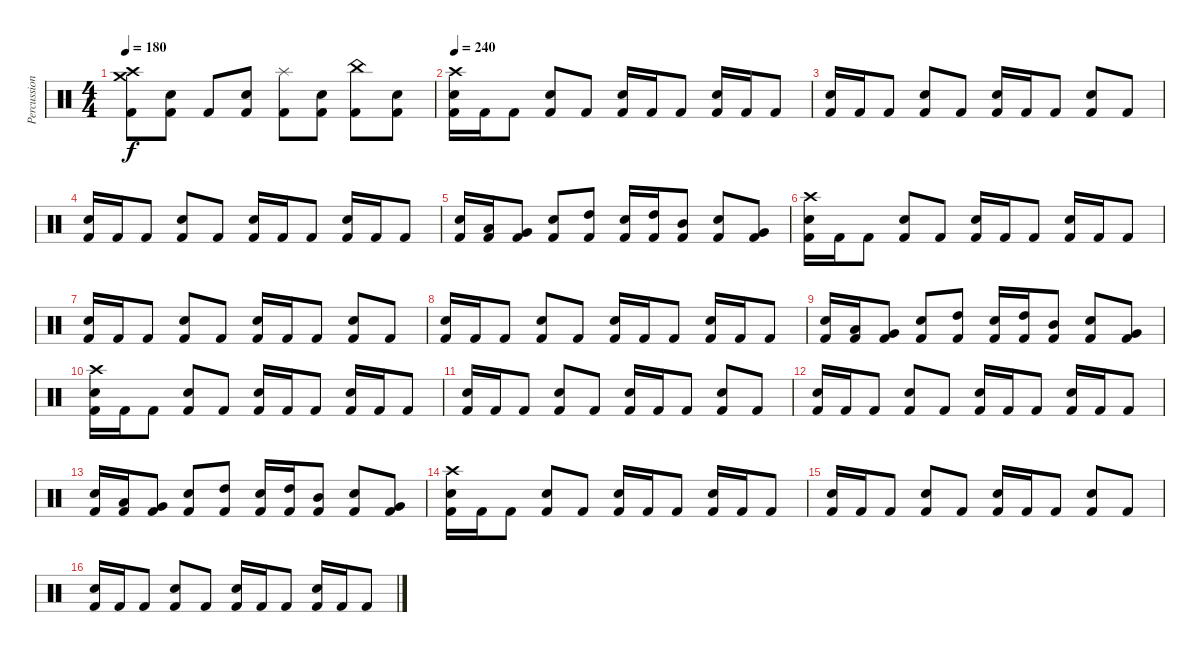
\track ("Percussion" "Percussion") {mute instrument percussion}
\staff {score}
\articulation defaults
\ts (4 4)
\tempo 180
\clef neutral
\ks c
("Crash high (hit)" "Crash medium (hit)" "Kick (hit) 2").8{dy f} ("Electric Snare (hit)" "Kick (hit) 2").8 "Kick (hit) 2".8 ("Electric Snare (hit)" "Kick (hit) 2").8 ("Splash (hit)" "Kick (hit) 2").8 ("Electric Snare (hit)" "Kick (hit) 2").8 ("China (hit)" "Kick (hit) 2").8 ("Electric Snare (hit)" "Kick (hit) 2").8 |
\tempo 240
("Crash high (hit)" "Electric Snare (hit)" "Kick (hit) 2").16 "Kick (hit) 2".16 "Kick (hit) 2".8 ("Electric Snare (hit)" "Kick (hit) 2").8 "Kick (hit) 2".8 ("Electric Snare (hit)" "Kick (hit) 2").16 "Kick (hit) 2".16 "Kick (hit) 2".8 ("Electric Snare (hit)" "Kick (hit) 2").16 "Kick (hit) 2".16 "Kick (hit) 2".8 |
("Electric Snare (hit)" "Kick (hit) 2").16 "Kick (hit) 2".16 "Kick (hit) 2".8 ("Electric Snare (hit)" "Kick (hit) 2").8 "Kick (hit) 2".8 ("Electric Snare (hit)" "Kick (hit) 2").16 "Kick (hit) 2".16 "Kick (hit) 2".8 ("Electric Snare (hit)" "Kick (hit) 2").8 "Kick (hit) 2".8 |
("Electric Snare (hit)" "Kick (hit) 2").16 "Kick (hit) 2".16 "Kick (hit) 2".8 ("Electric Snare (hit)" "Kick (hit) 2").8 "Kick (hit) 2".8 ("Electric Snare (hit)" "Kick (hit) 2").16 "Kick (hit) 2".16 "Kick (hit) 2".8 ("Electric Snare (hit)" "Kick (hit) 2").16 "Kick (hit) 2".16 "Kick (hit) 2".8 |
("Electric Snare (hit)" "Kick (hit) 2").16 ("Low Tom (hit)" "Kick (hit) 2").16 ("Very Low Tom (hit)" "Kick (hit) 2").8 ("Electric Snare (hit)" "Kick (hit) 2").8 ("High Tom (hit)" "Kick (hit) 2").8 ("Electric Snare (hit)" "Kick (hit) 2").16 ("High Tom (hit)" "Kick (hit) 2").16 ("Mid Tom (hit)" "Kick (hit) 2").8 ("Electric Snare (hit)" "Kick (hit) 2").8 ("Very Low Tom (hit)" "Kick (hit) 2").8 |
("Crash high (hit)" "Electric Snare (hit)" "Kick (hit) 2").16 "Kick (hit) 2".16 "Kick (hit) 2".8 ("Electric Snare (hit)" "Kick (hit) 2").8 "Kick (hit) 2".8 ("Electric Snare (hit)" "Kick (hit) 2").16 "Kick (hit) 2".16 "Kick (hit) 2".8 ("Electric Snare (hit)" "Kick (hit) 2").16 "Kick (hit) 2".16 "Kick (hit) 2".8 |
("Electric Snare (hit)" "Kick (hit) 2").16 "Kick (hit) 2".16 "Kick (hit) 2".8 ("Electric Snare (hit)" "Kick (hit) 2").8 "Kick (hit) 2".8 ("Electric Snare (hit)" "Kick (hit) 2").16 "Kick (hit) 2".16 "Kick (hit) 2".8 ("Electric Snare (hit)" "Kick (hit) 2").8 "Kick (hit) 2".8 |
("Electric Snare (hit)" "Kick (hit) 2").16 "Kick (hit) 2".16 "Kick (hit) 2".8 ("Electric Snare (hit)" "Kick (hit) 2").8 "Kick (hit) 2".8 ("Electric Snare (hit)" "Kick (hit) 2").16 "Kick (hit) 2".16 "Kick (hit) 2".8 ("Electric Snare (hit)" "Kick (hit) 2").16 "Kick (hit) 2".16 "Kick (hit) 2".8 |
("Electric Snare (hit)" "Kick (hit) 2").16 ("Low Tom (hit)" "Kick (hit) 2").16 ("Very Low Tom (hit)" "Kick (hit) 2").8 ("Electric Snare (hit)" "Kick (hit) 2").8 ("High Tom (hit)" "Kick (hit) 2").8 ("Electric Snare (hit)" "Kick (hit) 2").16 ("High Tom (hit)" "Kick (hit) 2").16 ("Mid Tom (hit)" "Kick (hit) 2").8 ("Electric Snare (hit)" "Kick (hit) 2").8 ("Very Low Tom (hit)" "Kick (hit) 2").8 |
("Crash high (hit)" "Electric Snare (hit)" "Kick (hit) 2").16 "Kick (hit) 2".16 "Kick (hit) 2".8 ("Electric Snare (hit)" "Kick (hit) 2").8 "Kick (hit) 2".8 ("Electric Snare (hit)" "Kick (hit) 2").16 "Kick (hit) 2".16 "Kick (hit) 2".8 ("Electric Snare (hit)" "Kick (hit) 2").16 "Kick (hit) 2".16 "Kick (hit) 2".8 |
("Electric Snare (hit)" "Kick (hit) 2").16 "Kick (hit) 2".16 "Kick (hit) 2".8 ("Electric Snare (hit)" "Kick (hit) 2").8 "Kick (hit) 2".8 ("Electric Snare (hit)" "Kick (hit) 2").16 "Kick (hit) 2".16 "Kick (hit) 2".8 ("Electric Snare (hit)" "Kick (hit) 2").8 "Kick (hit) 2".8 |
("Electric Snare (hit)" "Kick (hit) 2").16 "Kick (hit) 2".16 "Kick (hit) 2".8 ("Electric Snare (hit)" "Kick (hit) 2").8 "Kick (hit) 2".8 ("Electric Snare (hit)" "Kick (hit) 2").16 "Kick (hit) 2".16 "Kick (hit) 2".8 ("Electric Snare (hit)" "Kick (hit) 2").16 "Kick (hit) 2".16 "Kick (hit) 2".8 |
("Electric Snare (hit)" "Kick (hit) 2").16 ("Low Tom (hit)" "Kick (hit) 2").16 ("Very Low Tom (hit)" "Kick (hit) 2").8 ("Electric Snare (hit)" "Kick (hit) 2").8 ("High Tom (hit)" "Kick (hit) 2").8 ("Electric Snare (hit)" "Kick (hit) 2").16 ("High Tom (hit)" "Kick (hit) 2").16 ("Mid Tom (hit)" "Kick (hit) 2").8 ("Electric Snare (hit)" "Kick (hit) 2").8 ("Very Low Tom (hit)" "Kick (hit) 2").8 |
("Crash high (hit)" "Electric Snare (hit)" "Kick (hit) 2").16 "Kick (hit) 2".16 "Kick (hit) 2".8 ("Electric Snare (hit)" "Kick (hit) 2").8 "Kick (hit) 2".8 ("Electric Snare (hit)" "Kick (hit) 2").16 "Kick (hit) 2".16 "Kick (hit) 2".8 ("Electric Snare (hit)" "Kick (hit) 2").16 "Kick (hit) 2".16 "Kick (hit) 2".8 |
("Electric Snare (hit)" "Kick (hit) 2").16 "Kick (hit) 2".16 "Kick (hit) 2".8 ("Electric Snare (hit)" "Kick (hit) 2").8 "Kick (hit) 2".8 ("Electric Snare (hit)" "Kick (hit) 2").16 "Kick (hit) 2".16 "Kick (hit) 2".8 ("Electric Snare (hit)" "Kick (hit) 2").8 "Kick (hit) 2".8 |
("Electric Snare (hit)" "Kick (hit) 2").16 "Kick (hit) 2".16 "Kick (hit) 2".8 ("Electric Snare (hit)" "Kick (hit) 2").8 "Kick (hit) 2".8 ("Electric Snare (hit)" "Kick (hit) 2").16 "Kick (hit) 2".16 "Kick (hit) 2".8 ("Electric Snare (hit)" "Kick (hit) 2").16 "Kick (hit) 2".16 "Kick (hit) 2".8
